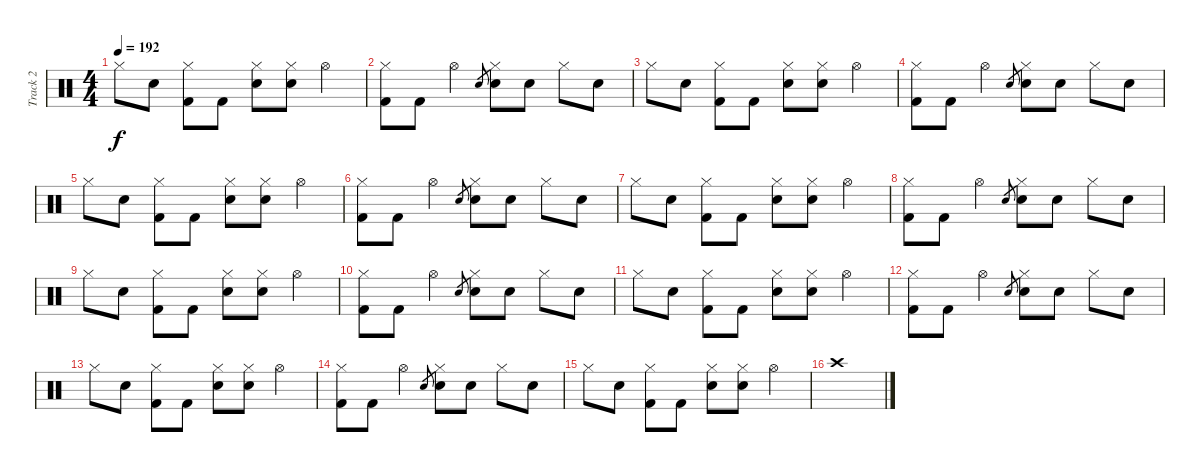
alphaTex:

\track ("Track 2" "Track 2") {instrument percussion}
\staff {score}
\articulation defaults
\ts (4 4)
\tempo 192
\clef neutral
\ks c "Hi-Hat (closed)".8{dy f} "Electric Snare (hit)".8
("Hi-Hat (closed)" "Kick (hit) 2").8 "Kick (hit) 2".8 ("Hi-Hat (closed)" "Electric Snare (hit)").8 ("Hi-Hat (closed)" "Electric Snare (hit)").8 "Hi-Hat (open)".4 |
("Hi-Hat (closed)" "Kick (hit) 2").8 "Kick (hit) 2".8 "Hi-Hat (open)".4 "Electric Snare (hit)".8{gr} ("Hi-Hat (closed)" "Electric Snare (hit)").8 "Electric Snare (hit)".8 "Hi-Hat (closed)".8 "Electric Snare (hit)".8 |
"Hi-Hat (closed)".8 "Electric Snare (hit)".8 ("Hi-Hat (closed)" "Kick (hit) 2").8 "Kick (hit) 2".8 ("Hi-Hat (closed)" "Electric Snare (hit)").8 ("Hi-Hat (closed)" "Electric Snare (hit)").8 "Hi-Hat (open)".4 |
("Hi-Hat (closed)" "Kick (hit) 2").8 "Kick (hit) 2".8 "Hi-Hat (open)".4 "Electric Snare (hit)".8{gr} ("Hi-Hat (closed)" "Electric Snare (hit)").8 "Electric Snare (hit)".8 "Hi-Hat (closed)".8 "Electric Snare (hit)".8 |
"Hi-Hat (closed)".8 "Electric Snare (hit)".8 ("Hi-Hat (closed)" "Kick (hit) 2").8 "Kick (hit) 2".8 ("Hi-Hat (closed)" "Electric Snare (hit)").8 ("Hi-Hat (closed)" "Electric Snare (hit)").8 "Hi-Hat (open)".4 |
("Hi-Hat (closed)" "Kick (hit) 2").8 "Kick (hit) 2".8 "Hi-Hat (open)".4 "Electric Snare (hit)".8{gr} ("Hi-Hat (closed)" "Electric Snare (hit)").8 "Electric Snare (hit)".8 "Hi-Hat (closed)".8 "Electric Snare (hit)".8 |
"Hi-Hat (closed)".8 "Electric Snare (hit)".8 ("Hi-Hat (closed)" "Kick (hit) 2").8 "Kick (hit) 2".8 ("Hi-Hat (closed)" "Electric Snare (hit)").8 ("Hi-Hat (closed)" "Electric Snare (hit)").8 "Hi-Hat (open)".4 |
("Hi-Hat (closed)" "Kick (hit) 2").8 "Kick (hit) 2".8 "Hi-Hat (open)".4 "Electric Snare (hit)".8{gr} ("Hi-Hat (closed)" "Electric Snare (hit)").8 "Electric Snare (hit)".8 "Hi-Hat (closed)".8 "Electric Snare (hit)".8 |
"Hi-Hat (closed)".8 "Electric Snare (hit)".8 ("Hi-Hat (closed)" "Kick (hit) 2").8 "Kick (hit) 2".8 ("Hi-Hat (closed)" "Electric Snare (hit)").8 ("Hi-Hat (closed)" "Electric Snare (hit)").8 "Hi-Hat (open)".4 |
("Hi-Hat (closed)" "Kick (hit) 2").8 "Kick (hit) 2".8 "Hi-Hat (open)".4 "Electric Snare (hit)".8{gr} ("Hi-Hat (closed)" "Electric Snare (hit)").8 "Electric Snare (hit)".8 "Hi-Hat (closed)".8 "Electric Snare (hit)".8 |
"Hi-Hat (closed)".8 "Electric Snare (hit)".8 ("Hi-Hat (closed)" "Kick (hit) 2").8 "Kick (hit) 2".8 ("Hi-Hat (closed)" "Electric Snare (hit)").8 ("Hi-Hat (closed)" "Electric Snare (hit)").8 "Hi-Hat (open)".4 |
("Hi-Hat (closed)" "Kick (hit) 2").8 "Kick (hit) 2".8 "Hi-Hat (open)".4 "Electric Snare (hit)".8{gr} ("Hi-Hat (closed)" "Electric Snare (hit)").8 "Electric Snare (hit)".8 "Hi-Hat (closed)".8 "Electric Snare (hit)".8 |
"Hi-Hat (closed)".8 "Electric Snare (hit)".8 ("Hi-Hat (closed)" "Kick (hit) 2").8 "Kick (hit) 2".8 ("Hi-Hat (closed)" "Electric Snare (hit)").8 ("Hi-Hat (closed)" "Electric Snare (hit)").8 "Hi-Hat (open)".4 |
("Hi-Hat (closed)" "Kick (hit) 2").8 "Kick (hit) 2".8 "Hi-Hat (open)".4 "Electric Snare (hit)".8{gr} ("Hi-Hat (closed)" "Electric Snare (hit)").8 "Electric Snare (hit)".8 "Hi-Hat (closed)".8 "Electric Snare (hit)".8 |
"Hi-Hat (closed)".8 "Electric Snare (hit)".8 ("Hi-Hat (closed)" "Kick (hit) 2").8 "Kick (hit) 2".8 ("Hi-Hat (closed)" "Electric Snare (hit)").8 ("Hi-Hat (closed)" "Electric Snare (hit)").8 "Hi-Hat (open)".4 |
"Crash high (hit)".1
